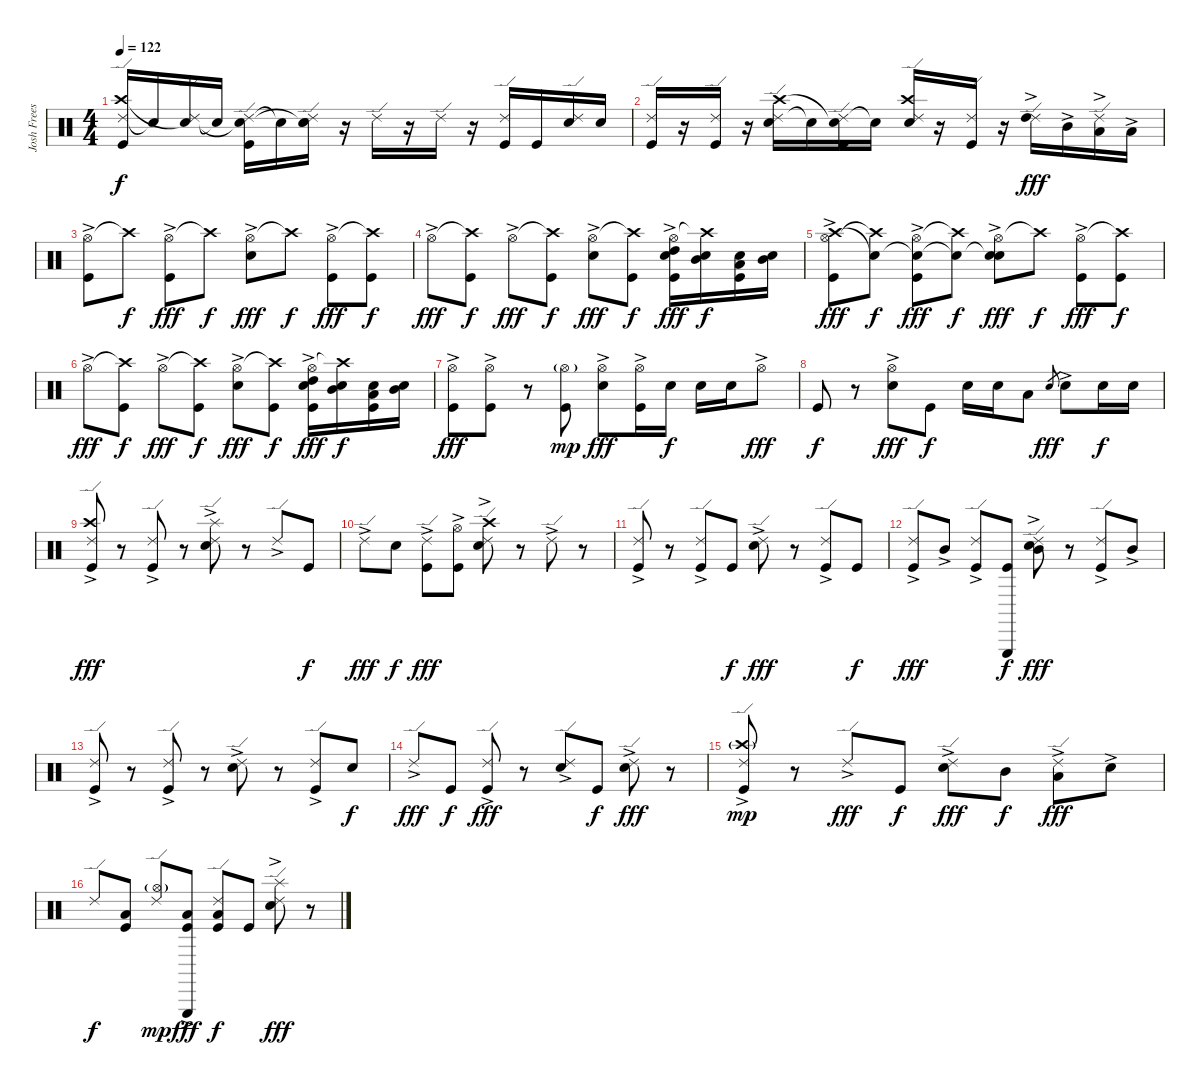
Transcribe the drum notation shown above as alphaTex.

\track ("Josh Freese" "Josh Frees") {instrument percussion}
\staff {score}
\articulation defaults
\ts (4 4)
\tempo 122
\clef neutral
\ks c
("Ride (edge) 2" "Crash high (hit)" "Kick (hit)").16{dy f} "Snare (hit)"{t}.16 ("Ride (edge) 2" "Snare (hit)"{t}).16 "Snare (hit)"{t}.16 ("Ride (edge) 2" "Snare (hit)"{t} "Kick (hit)").16 "Snare (hit)"{t}.16 ("Ride (edge) 2" "Snare (hit)"{t} "Electric Snare (hit)").16 r.16 "Ride (edge) 2".16 r.16 "Ride (edge) 2".16 r.16 ("Ride (edge) 2" "Kick (hit)").16 "Kick (hit)".16 ("Ride (edge) 2" "Electric Snare (hit)").16 "Electric Snare (hit)".16 |
("Ride (edge) 2" "Kick (hit)").16 r.16 ("Ride (edge) 2" "Kick (hit)").16 r.16 ("Ride (edge) 2" "Crash high (hit)" "Electric Snare (hit)").16 "Snare (hit)"{t}.16 ("Ride (edge) 2" "Snare (hit)"{t} "Kick (hit)").16 "Snare (hit)"{t}.16 ("Ride (edge) 2" "Crash high (hit)" "Electric Snare (hit)").16 r.16 ("Ride (edge) 2" "Kick (hit)").16 r.16 ("Ride (edge) 2" "High Tom (hit)"{ac}).16{dy fff} "Mid Tom (hit)"{ac}.16 ("Ride (edge) 2" "Low Tom (hit)"{ac}).16 "Low Floor Tom (hit)"{ac}.16 |
("Hi-Hat (open)"{ac} "Kick (hit)").8 "Crash high (hit)"{t}.8{dy f} ("Hi-Hat (open)"{ac} "Kick (hit)").8{dy fff} "Crash high (hit)"{t}.8{dy f} ("Hi-Hat (open)"{ac} "Electric Snare (hit)"{ac}).8{dy fff} "Crash high (hit)"{t}.8{dy f} ("Hi-Hat (open)"{ac} "Kick (hit)").8{dy fff} ("Crash high (hit)"{t} "Kick (hit)").8{dy f} |
"Hi-Hat (open)"{ac}.8{dy fff} ("Crash high (hit)"{t} "Kick (hit)").8{dy f} "Hi-Hat (open)"{ac}.8{dy fff} ("Crash high (hit)"{t} "Kick (hit)").8{dy f} ("Hi-Hat (open)"{ac} "Electric Snare (hit)"{ac}).8{dy fff} ("Crash high (hit)"{t} "Kick (hit)").8{dy f} ("Hi-Hat (open)"{ac} "High Tom (hit)" "Electric Snare (hit)" "Kick (hit)").16{dy fff} ("Crash high (hit)"{t} "Mid Tom (hit)" "Electric Snare (hit)").16{dy f} ("Low Floor Tom (hit)" "Electric Snare (hit)" "Kick (hit)").16 ("Mid Tom (hit)" "Electric Snare (hit)").16 |
("Hi-Hat (open)"{ac} "Crash high (hit)"{ac} "Kick (hit)").8{dy fff} ("Crash high (hit)"{t} "Snare (hit)"{t}).8{dy f} ("Hi-Hat (open)"{ac} "Snare (hit)"{t} "Kick (hit)").8{dy fff} ("Crash high (hit)"{t} "Snare (hit)"{t}).8{dy f} ("Hi-Hat (open)"{ac} "Snare (hit)"{t} "Electric Snare (hit)"{ac}).8{dy fff} "Crash high (hit)"{t}.8{dy f} ("Hi-Hat (open)"{ac} "Kick (hit)").8{dy fff} ("Crash high (hit)"{t} "Kick (hit)").8{dy f} |
"Hi-Hat (open)"{ac}.8{dy fff} ("Crash high (hit)"{t} "Kick (hit)").8{dy f} "Hi-Hat (open)"{ac}.8{dy fff} ("Crash high (hit)"{t} "Kick (hit)").8{dy f} ("Hi-Hat (open)"{ac} "Electric Snare (hit)"{ac}).8{dy fff} ("Crash high (hit)"{t} "Kick (hit)").8{dy f} ("Hi-Hat (open)"{ac} "High Tom (hit)" "Electric Snare (hit)" "Kick (hit)").16{dy fff} ("Crash high (hit)"{t} "Mid Tom (hit)" "Electric Snare (hit)").16{dy f} ("Low Floor Tom (hit)" "Electric Snare (hit)" "Kick (hit)").16 ("Mid Tom (hit)" "Electric Snare (hit)").16 |
("Hi-Hat (open)"{ac} "Kick (hit)").8{dy fff} ("Hi-Hat (open)"{ac} "Kick (hit)").8 r.8 ("Hi-Hat (open)"{g} "Kick (hit)").8{dy mp} ("Hi-Hat (open)"{ac} "Electric Snare (hit)").8{dy fff} ("Hi-Hat (open)"{ac} "Kick (hit)").16 "Electric Snare (hit)".16{dy f} "Electric Snare (hit)".16 "Electric Snare (hit)".16 "Hi-Hat (open)"{ac}.8{dy fff} |
"Kick (hit)".8{dy f} r.8 ("Hi-Hat (open)"{ac} "Electric Snare (hit)").8{dy fff} "Kick (hit)".8{dy f} "Electric Snare (hit)".16 "Electric Snare (hit)".16 "Low Tom (hit)".8 "Electric Snare (hit)".8{gr dy fff} "Electric Snare (hit)"{ac}.8 "Electric Snare (hit)".16{dy f} "Electric Snare (hit)".16 |
("Ride (edge) 2"{ac} "Crash high (hit)"{ac} "Kick (hit)").8{dy fff} r.8 ("Ride (edge) 2"{ac} "Kick (hit)").8 r.8 ("Ride (edge) 2"{ac} "Splash (hit)"{ac} "Electric Snare (hit)").8 r.8 "Ride (edge) 2"{ac}.8 "Kick (hit)".8{dy f} |
"Ride (edge) 2"{ac}.8{dy fff} "Electric Snare (hit)".8{dy f} ("Ride (edge) 2"{ac} "Kick (hit)").8{dy fff} ("Hi-Hat (open)"{ac} "Kick (hit)").8 ("Ride (edge) 2" "Crash high (hit)"{ac} "Electric Snare (hit)").8 r.8 "Ride (edge) 2"{ac}.8 r.8 |
("Ride (edge) 2"{ac} "Kick (hit)").8 r.8 ("Ride (edge) 2"{ac} "Kick (hit)").8 "Kick (hit)".8{dy f} ("Ride (edge) 2"{ac} "Electric Snare (hit)").8{dy fff} r.8 ("Ride (edge) 2"{ac} "Kick (hit)").8 "Kick (hit)".8{dy f} |
("Ride (edge) 2"{ac} "Kick (hit)").8{dy fff} "Mid Tom (hit)"{ac}.8 ("Ride (edge) 2"{ac} "Kick (hit)").8 ("Triangle (hit)" "Kick (hit)").8{dy f} ("Ride (edge) 2" "Mid Tom (hit)"{ac} "Electric Snare (hit)"{ac}).8{dy fff} r.8 ("Ride (edge) 2"{ac} "Kick (hit)").8 "Mid Tom (hit)"{ac}.8 |
("Ride (edge) 2"{ac} "Kick (hit)").8 r.8 ("Ride (edge) 2"{ac} "Kick (hit)").8 r.8 ("Ride (edge) 2"{ac} "Electric Snare (hit)"{ac}).8 r.8 ("Ride (edge) 2"{ac} "Kick (hit)").8 "Electric Snare (hit)".8{dy f} |
"Ride (edge) 2"{ac}.8{dy fff} "Kick (hit)".8{dy f} ("Ride (edge) 2"{ac} "Kick (hit)").8{dy fff} r.8 ("Ride (edge) 2"{ac} "Electric Snare (hit)"{ac}).8 "Kick (hit)".8{dy f} ("Ride (edge) 2"{ac} "Electric Snare (hit)").8{dy fff} r.8 |
("Ride (edge) 2"{ac} "Crash high (hit)"{g} "Kick (hit)").8{dy mp} r.8 "Ride (edge) 2"{ac}.8{dy fff} "Kick (hit)".8{dy f} ("Ride (edge) 2"{ac} "Electric Snare (hit)").8{dy fff} "Mid Tom (hit)".8{dy f} ("Ride (edge) 2"{ac} "Low Tom (hit)").8{dy fff} "Electric Snare (hit)"{ac}.8 |
"Ride (edge) 2".8{dy f} ("Low Floor Tom (hit)" "Kick (hit)").8 ("Ride (edge) 2" "Hi-Hat (open)"{g}).8{dy mp} ("Triangle (hit)"{ac} "Low Floor Tom (hit)" "Kick (hit)").8{dy fff} ("Ride (edge) 2" "Low Floor Tom (hit)" "Kick (hit)").8{dy f} "Kick (hit)".8 ("Ride (edge) 2" "Splash (hit)"{ac} "Electric Snare (hit)"{ac}).8{dy fff} r.8
